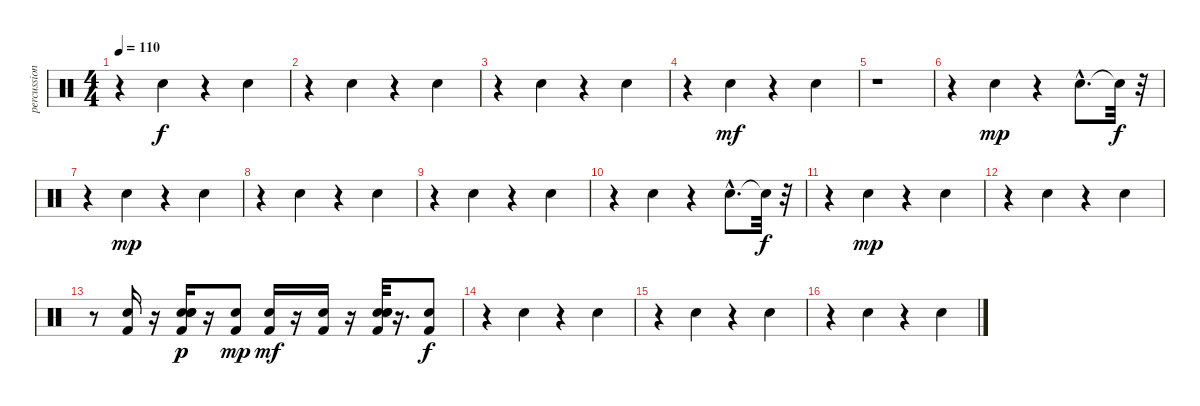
\track ("percussions 3" "percussion") {instrument percussion}
\staff {score}
\articulation defaults
\ts (4 4)
\tempo 110
\clef neutral
\ks c
r.4{dy f} "Electric Snare (hit)".4 r.4 "Electric Snare (hit)".4 |
r.4 "Electric Snare (hit)".4 r.4 "Electric Snare (hit)".4 |
r.4 "Electric Snare (hit)".4 r.4 "Electric Snare (hit)".4 |
r.4 "Electric Snare (hit)".4{dy mf} r.4 "Electric Snare (hit)".4 |
r.1 |
r.4 "Electric Snare (hit)".4{dy mp} r.4 "Electric Snare (hit)"{hac}.8{d} "Snare (hit)"{t}.32{dy f} r.32 |
r.4 "Electric Snare (hit)".4{dy mp} r.4 "Electric Snare (hit)".4 |
r.4 "Electric Snare (hit)".4 r.4 "Electric Snare (hit)".4 |
r.4 "Electric Snare (hit)".4 r.4 "Electric Snare (hit)".4 |
r.4 "Electric Snare (hit)".4 r.4 "Electric Snare (hit)"{hac}.8{d} "Snare (hit)"{t}.32{dy f} r.32 |
r.4 "Electric Snare (hit)".4{dy mp} r.4 "Electric Snare (hit)".4 |
r.4 "Electric Snare (hit)".4 r.4 "Electric Snare (hit)".4 |
r.8 ("Kick (hit) 2" "Electric Snare (hit)").16 r.16 ("Electric Snare (hit)" "Electric Snare (hit)" "Kick (hit) 2" "Electric Snare (hit)").16{dy p} r.16 ("Kick (hit) 2" "Electric Snare (hit)").8{dy mp} ("Kick (hit) 2" "Electric Snare (hit)").16{dy mf} r.16 ("Kick (hit) 2" "Electric Snare (hit)").16 r.16 ("Electric Snare (hit)" "Electric Snare (hit)" "Kick (hit) 2" "Electric Snare (hit)").32 r.16{d} ("Kick (hit) 2" "Electric Snare (hit)").8{dy f} |
r.4 "Electric Snare (hit)".4 r.4 "Electric Snare (hit)".4 |
r.4 "Electric Snare (hit)".4 r.4 "Electric Snare (hit)".4 |
r.4 "Electric Snare (hit)".4 r.4 "Electric Snare (hit)".4
